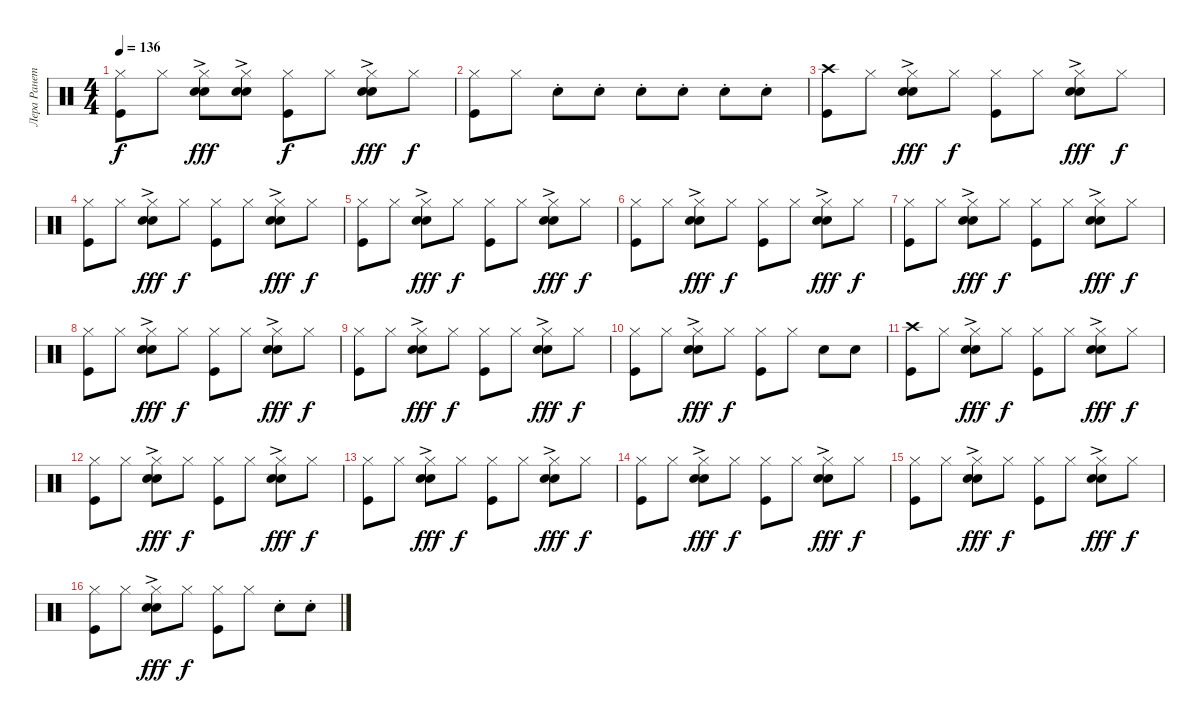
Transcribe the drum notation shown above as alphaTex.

\track ("Лера Ранетка" "Лера Ранет") {instrument percussion}
\staff {score}
\articulation defaults
\ts (4 4)
\tempo 136
\clef neutral
\ks c
("Hi-Hat (closed)" "Kick (hit)").8{dy f} "Hi-Hat (closed)".8 ("Hi-Hat (closed)" "Electric Snare (hit)" "Hand Clap (hit)"{ac}).8{dy fff} ("Hi-Hat (closed)" "Electric Snare (hit)" "Hand Clap (hit)"{ac}).8 ("Hi-Hat (closed)" "Kick (hit)").8{dy f} "Hi-Hat (closed)".8 ("Hi-Hat (closed)" "Electric Snare (hit)" "Hand Clap (hit)"{ac}).8{dy fff} "Hi-Hat (closed)".8{dy f} |
("Hi-Hat (closed)" "Kick (hit)").8 "Hi-Hat (closed)".8 "Electric Snare (hit)"{st}.8 "Electric Snare (hit)"{st}.8 "Electric Snare (hit)"{st}.8 "Electric Snare (hit)"{st}.8 "Electric Snare (hit)"{st}.8 "Electric Snare (hit)"{st}.8 |
("Crash high (hit)" "Kick (hit)").8 "Hi-Hat (closed)".8 ("Hi-Hat (closed)" "Electric Snare (hit)" "Hand Clap (hit)"{ac}).8{dy fff} "Hi-Hat (closed)".8{dy f} ("Hi-Hat (closed)" "Kick (hit)").8 "Hi-Hat (closed)".8 ("Hi-Hat (closed)" "Electric Snare (hit)" "Hand Clap (hit)"{ac}).8{dy fff} "Hi-Hat (closed)".8{dy f} |
("Hi-Hat (closed)" "Kick (hit)").8 "Hi-Hat (closed)".8 ("Hi-Hat (closed)" "Electric Snare (hit)" "Hand Clap (hit)"{ac}).8{dy fff} "Hi-Hat (closed)".8{dy f} ("Hi-Hat (closed)" "Kick (hit)").8 "Hi-Hat (closed)".8 ("Hi-Hat (closed)" "Electric Snare (hit)" "Hand Clap (hit)"{ac}).8{dy fff} "Hi-Hat (closed)".8{dy f} |
("Hi-Hat (closed)" "Kick (hit)").8 "Hi-Hat (closed)".8 ("Hi-Hat (closed)" "Electric Snare (hit)" "Hand Clap (hit)"{ac}).8{dy fff} "Hi-Hat (closed)".8{dy f} ("Hi-Hat (closed)" "Kick (hit)").8 "Hi-Hat (closed)".8 ("Hi-Hat (closed)" "Electric Snare (hit)" "Hand Clap (hit)"{ac}).8{dy fff} "Hi-Hat (closed)".8{dy f} |
("Hi-Hat (closed)" "Kick (hit)").8 "Hi-Hat (closed)".8 ("Hi-Hat (closed)" "Electric Snare (hit)" "Hand Clap (hit)"{ac}).8{dy fff} "Hi-Hat (closed)".8{dy f} ("Hi-Hat (closed)" "Kick (hit)").8 "Hi-Hat (closed)".8 ("Hi-Hat (closed)" "Electric Snare (hit)" "Hand Clap (hit)"{ac}).8{dy fff} "Hi-Hat (closed)".8{dy f} |
("Hi-Hat (closed)" "Kick (hit)").8 "Hi-Hat (closed)".8 ("Hi-Hat (closed)" "Electric Snare (hit)" "Hand Clap (hit)"{ac}).8{dy fff} "Hi-Hat (closed)".8{dy f} ("Hi-Hat (closed)" "Kick (hit)").8 "Hi-Hat (closed)".8 ("Hi-Hat (closed)" "Electric Snare (hit)" "Hand Clap (hit)"{ac}).8{dy fff} "Hi-Hat (closed)".8{dy f} |
("Hi-Hat (closed)" "Kick (hit)").8 "Hi-Hat (closed)".8 ("Hi-Hat (closed)" "Electric Snare (hit)" "Hand Clap (hit)"{ac}).8{dy fff} "Hi-Hat (closed)".8{dy f} ("Hi-Hat (closed)" "Kick (hit)").8 "Hi-Hat (closed)".8 ("Hi-Hat (closed)" "Electric Snare (hit)" "Hand Clap (hit)"{ac}).8{dy fff} "Hi-Hat (closed)".8{dy f} |
("Hi-Hat (closed)" "Kick (hit)").8 "Hi-Hat (closed)".8 ("Hi-Hat (closed)" "Electric Snare (hit)" "Hand Clap (hit)"{ac}).8{dy fff} "Hi-Hat (closed)".8{dy f} ("Hi-Hat (closed)" "Kick (hit)").8 "Hi-Hat (closed)".8 ("Hi-Hat (closed)" "Electric Snare (hit)" "Hand Clap (hit)"{ac}).8{dy fff} "Hi-Hat (closed)".8{dy f} |
("Hi-Hat (closed)" "Kick (hit)").8 "Hi-Hat (closed)".8 ("Hi-Hat (closed)" "Electric Snare (hit)" "Hand Clap (hit)"{ac}).8{dy fff} "Hi-Hat (closed)".8{dy f} ("Hi-Hat (closed)" "Kick (hit)").8 "Hi-Hat (closed)".8 "Electric Snare (hit)".8 "Electric Snare (hit)".8 |
("Crash high (hit)" "Kick (hit)").8 "Hi-Hat (closed)".8 ("Hi-Hat (closed)" "Electric Snare (hit)" "Hand Clap (hit)"{ac}).8{dy fff} "Hi-Hat (closed)".8{dy f} ("Hi-Hat (closed)" "Kick (hit)").8 "Hi-Hat (closed)".8 ("Hi-Hat (closed)" "Electric Snare (hit)" "Hand Clap (hit)"{ac}).8{dy fff} "Hi-Hat (closed)".8{dy f} |
("Hi-Hat (closed)" "Kick (hit)").8 "Hi-Hat (closed)".8 ("Hi-Hat (closed)" "Electric Snare (hit)" "Hand Clap (hit)"{ac}).8{dy fff} "Hi-Hat (closed)".8{dy f} ("Hi-Hat (closed)" "Kick (hit)").8 "Hi-Hat (closed)".8 ("Hi-Hat (closed)" "Electric Snare (hit)" "Hand Clap (hit)"{ac}).8{dy fff} "Hi-Hat (closed)".8{dy f} |
("Hi-Hat (closed)" "Kick (hit)").8 "Hi-Hat (closed)".8 ("Hi-Hat (closed)" "Electric Snare (hit)" "Hand Clap (hit)"{ac}).8{dy fff} "Hi-Hat (closed)".8{dy f} ("Hi-Hat (closed)" "Kick (hit)").8 "Hi-Hat (closed)".8 ("Hi-Hat (closed)" "Electric Snare (hit)" "Hand Clap (hit)"{ac}).8{dy fff} "Hi-Hat (closed)".8{dy f} |
("Hi-Hat (closed)" "Kick (hit)").8 "Hi-Hat (closed)".8 ("Hi-Hat (closed)" "Electric Snare (hit)" "Hand Clap (hit)"{ac}).8{dy fff} "Hi-Hat (closed)".8{dy f} ("Hi-Hat (closed)" "Kick (hit)").8 "Hi-Hat (closed)".8 ("Hi-Hat (closed)" "Electric Snare (hit)" "Hand Clap (hit)"{ac}).8{dy fff} "Hi-Hat (closed)".8{dy f} |
("Hi-Hat (closed)" "Kick (hit)").8 "Hi-Hat (closed)".8 ("Hi-Hat (closed)" "Electric Snare (hit)" "Hand Clap (hit)"{ac}).8{dy fff} "Hi-Hat (closed)".8{dy f} ("Hi-Hat (closed)" "Kick (hit)").8 "Hi-Hat (closed)".8 ("Hi-Hat (closed)" "Electric Snare (hit)" "Hand Clap (hit)"{ac}).8{dy fff} "Hi-Hat (closed)".8{dy f} |
("Hi-Hat (closed)" "Kick (hit)").8 "Hi-Hat (closed)".8 ("Hi-Hat (closed)" "Electric Snare (hit)" "Hand Clap (hit)"{ac}).8{dy fff} "Hi-Hat (closed)".8{dy f} ("Hi-Hat (closed)" "Kick (hit)").8 "Hi-Hat (closed)".8 "Electric Snare (hit)"{st}.8 "Electric Snare (hit)"{st}.8
